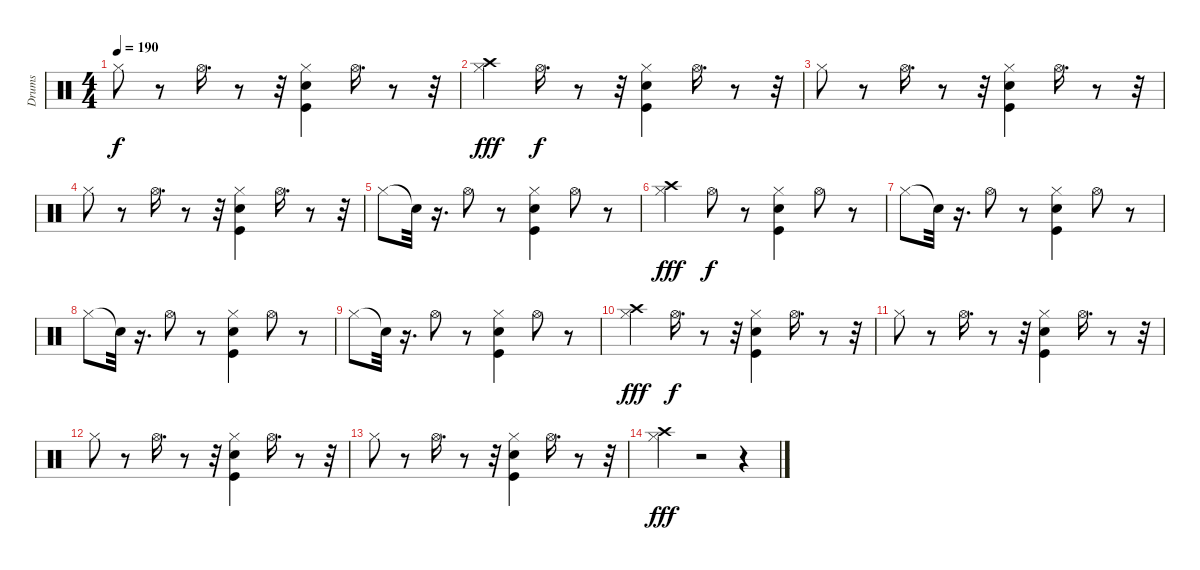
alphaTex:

\track ("Drums" "Drums") {instrument percussion}
\staff {score}
\articulation defaults
\ts (4 4)
\tempo 190
\clef neutral
\ks c "Hi-Hat (closed)".8{dy f}
r.8 "Hi-Hat (open)".16{d} r.8 r.32 ("Kick (hit)" "Snare (hit) 2" "Hi-Hat (closed)").4 "Hi-Hat (open)".16{d} r.8 r.32 |
("Crash high (hit)" "Hi-Hat (closed)").4{dy fff} "Hi-Hat (open)".16{d dy f} r.8 r.32 ("Kick (hit)" "Snare (hit) 2" "Hi-Hat (closed)").4 "Hi-Hat (open)".16{d} r.8 r.32 |
"Hi-Hat (closed)".8 r.8 "Hi-Hat (open)".16{d} r.8 r.32 ("Kick (hit)" "Snare (hit) 2" "Hi-Hat (closed)").4 "Hi-Hat (open)".16{d} r.8 r.32 |
"Hi-Hat (closed)".8 r.8 "Hi-Hat (open)".16{d} r.8 r.32 ("Kick (hit)" "Snare (hit) 2" "Hi-Hat (closed)").4 "Hi-Hat (open)".16{d} r.8 r.32 |
"Hi-Hat (closed)".8 "Snare (hit)"{t}.32 r.16{d} "Hi-Hat (open)".8 r.8 ("Kick (hit)" "Snare (hit) 2" "Hi-Hat (closed)").4 "Hi-Hat (open)".8 r.8 |
("Crash high (hit)" "Hi-Hat (closed)").4{dy fff} "Hi-Hat (open)".8{dy f} r.8 ("Kick (hit)" "Snare (hit) 2" "Hi-Hat (closed)").4 "Hi-Hat (open)".8 r.8 |
"Hi-Hat (closed)".8 "Snare (hit)"{t}.32 r.16{d} "Hi-Hat (open)".8 r.8 ("Kick (hit)" "Snare (hit) 2" "Hi-Hat (closed)").4 "Hi-Hat (open)".8 r.8 |
"Hi-Hat (closed)".8 "Snare (hit)"{t}.32 r.16{d} "Hi-Hat (open)".8 r.8 ("Kick (hit)" "Snare (hit) 2" "Hi-Hat (closed)").4 "Hi-Hat (open)".8 r.8 |
"Hi-Hat (closed)".8 "Snare (hit)"{t}.32 r.16{d} "Hi-Hat (open)".8 r.8 ("Kick (hit)" "Snare (hit) 2" "Hi-Hat (closed)").4 "Hi-Hat (open)".8 r.8 |
("Crash high (hit)" "Hi-Hat (closed)").4{dy fff} "Hi-Hat (open)".16{d dy f} r.8 r.32 ("Kick (hit)" "Snare (hit) 2" "Hi-Hat (closed)").4 "Hi-Hat (open)".16{d} r.8 r.32 |
"Hi-Hat (closed)".8 r.8 "Hi-Hat (open)".16{d} r.8 r.32 ("Kick (hit)" "Snare (hit) 2" "Hi-Hat (closed)").4 "Hi-Hat (open)".16{d} r.8 r.32 |
"Hi-Hat (closed)".8 r.8 "Hi-Hat (open)".16{d} r.8 r.32 ("Kick (hit)" "Snare (hit) 2" "Hi-Hat (closed)").4 "Hi-Hat (open)".16{d} r.8 r.32 |
"Hi-Hat (closed)".8 r.8 "Hi-Hat (open)".16{d} r.8 r.32 ("Kick (hit)" "Snare (hit) 2" "Hi-Hat (closed)").4 "Hi-Hat (open)".16{d} r.8 r.32 |
("Crash high (hit)" "Hi-Hat (closed)").4{dy fff} r.2 r.4
